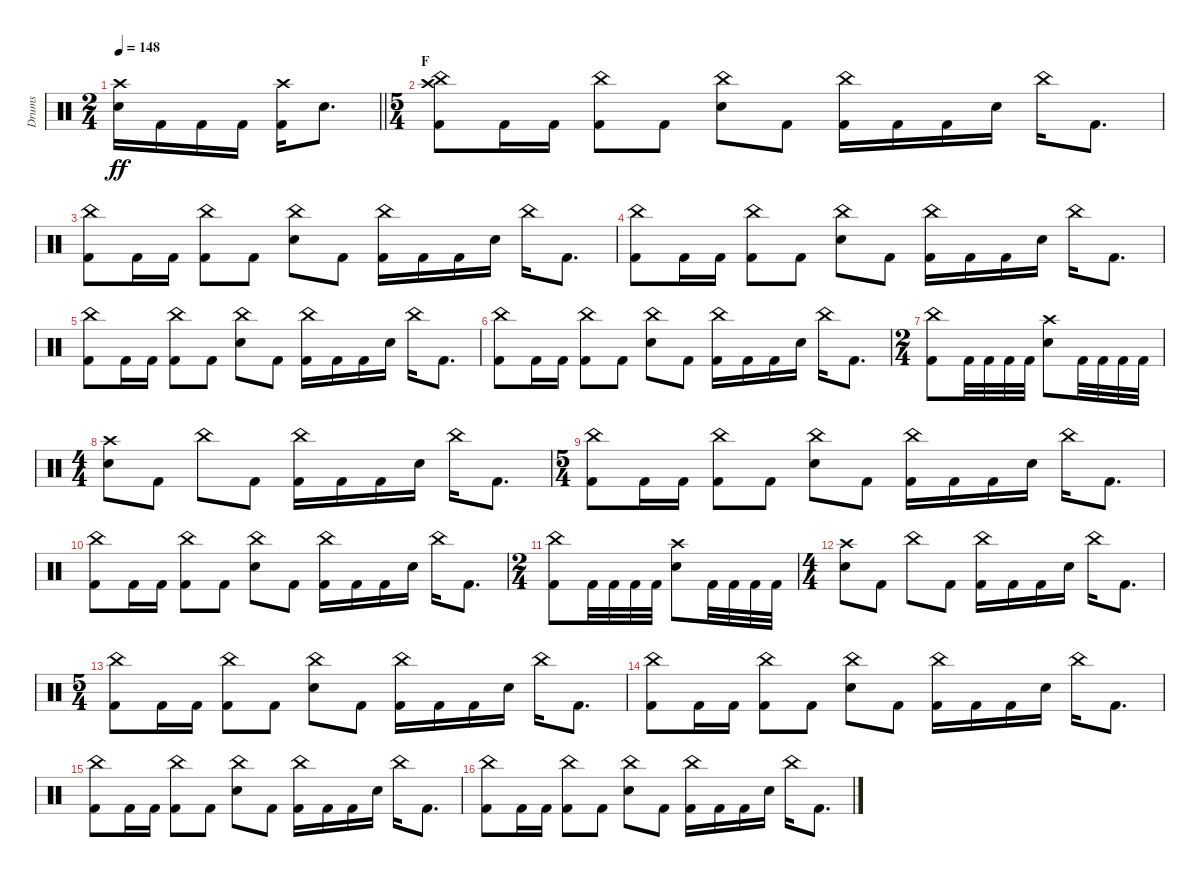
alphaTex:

\track ("Drums" "Drums") {instrument percussion}
\staff {score}
\articulation defaults
\ts (2 4)
\tempo 148
\clef neutral
\barLineRight lightlight
\ks c
("Crash high (hit)" "Electric Snare (hit)").16{dy ff} "Kick (hit) 2".16 "Kick (hit) 2".16 "Kick (hit) 2".16 ("Crash high (hit)" "Kick (hit) 2").16 "Electric Snare (hit)".8{d} |
\ts (5 4)
\section ("" "F")
("Crash high (hit)" "China (hit)" "Kick (hit) 2").8 "Kick (hit) 2".16 "Kick (hit) 2".16 ("China (hit)" "Kick (hit) 2").8 "Kick (hit) 2".8 ("China (hit)" "Electric Snare (hit)").8 "Kick (hit) 2".8 ("China (hit)" "Kick (hit) 2").16 "Kick (hit) 2".16 "Kick (hit) 2".16 "Electric Snare (hit)".16 "China (hit)".16 "Kick (hit) 2".8{d} |
("China (hit)" "Kick (hit) 2").8 "Kick (hit) 2".16 "Kick (hit) 2".16 ("China (hit)" "Kick (hit) 2").8 "Kick (hit) 2".8 ("China (hit)" "Electric Snare (hit)").8 "Kick (hit) 2".8 ("China (hit)" "Kick (hit) 2").16 "Kick (hit) 2".16 "Kick (hit) 2".16 "Electric Snare (hit)".16 "China (hit)".16 "Kick (hit) 2".8{d} |
("China (hit)" "Kick (hit) 2").8 "Kick (hit) 2".16 "Kick (hit) 2".16 ("China (hit)" "Kick (hit) 2").8 "Kick (hit) 2".8 ("China (hit)" "Electric Snare (hit)").8 "Kick (hit) 2".8 ("China (hit)" "Kick (hit) 2").16 "Kick (hit) 2".16 "Kick (hit) 2".16 "Electric Snare (hit)".16 "China (hit)".16 "Kick (hit) 2".8{d} |
("China (hit)" "Kick (hit) 2").8 "Kick (hit) 2".16 "Kick (hit) 2".16 ("China (hit)" "Kick (hit) 2").8 "Kick (hit) 2".8 ("China (hit)" "Electric Snare (hit)").8 "Kick (hit) 2".8 ("China (hit)" "Kick (hit) 2").16 "Kick (hit) 2".16 "Kick (hit) 2".16 "Electric Snare (hit)".16 "China (hit)".16 "Kick (hit) 2".8{d} |
("China (hit)" "Kick (hit) 2").8 "Kick (hit) 2".16 "Kick (hit) 2".16 ("China (hit)" "Kick (hit) 2").8 "Kick (hit) 2".8 ("China (hit)" "Electric Snare (hit)").8 "Kick (hit) 2".8 ("China (hit)" "Kick (hit) 2").16 "Kick (hit) 2".16 "Kick (hit) 2".16 "Electric Snare (hit)".16 "China (hit)".16 "Kick (hit) 2".8{d} |
\ts (2 4)
("China (hit)" "Kick (hit) 2").8 "Kick (hit) 2".32 "Kick (hit) 2".32 "Kick (hit) 2".32 "Kick (hit) 2".32 ("Crash high (hit)" "Electric Snare (hit)").8 "Kick (hit) 2".32 "Kick (hit) 2".32 "Kick (hit) 2".32 "Kick (hit) 2".32 |
\ts (4 4)
("Crash high (hit)" "Electric Snare (hit)").8 "Kick (hit) 2".8 "China (hit)".8 "Kick (hit) 2".8 ("China (hit)" "Kick (hit) 2").16 "Kick (hit) 2".16 "Kick (hit) 2".16 "Electric Snare (hit)".16 "China (hit)".16 "Kick (hit) 2".8{d} |
\ts (5 4)
("China (hit)" "Kick (hit) 2").8 "Kick (hit) 2".16 "Kick (hit) 2".16 ("China (hit)" "Kick (hit) 2").8 "Kick (hit) 2".8 ("China (hit)" "Electric Snare (hit)").8 "Kick (hit) 2".8 ("China (hit)" "Kick (hit) 2").16 "Kick (hit) 2".16 "Kick (hit) 2".16 "Electric Snare (hit)".16 "China (hit)".16 "Kick (hit) 2".8{d} |
("China (hit)" "Kick (hit) 2").8 "Kick (hit) 2".16 "Kick (hit) 2".16 ("China (hit)" "Kick (hit) 2").8 "Kick (hit) 2".8 ("China (hit)" "Electric Snare (hit)").8 "Kick (hit) 2".8 ("China (hit)" "Kick (hit) 2").16 "Kick (hit) 2".16 "Kick (hit) 2".16 "Electric Snare (hit)".16 "China (hit)".16 "Kick (hit) 2".8{d} |
\ts (2 4)
("China (hit)" "Kick (hit) 2").8 "Kick (hit) 2".32 "Kick (hit) 2".32 "Kick (hit) 2".32 "Kick (hit) 2".32 ("Crash high (hit)" "Electric Snare (hit)").8 "Kick (hit) 2".32 "Kick (hit) 2".32 "Kick (hit) 2".32 "Kick (hit) 2".32 |
\ts (4 4)
("Crash high (hit)" "Electric Snare (hit)").8 "Kick (hit) 2".8 "China (hit)".8 "Kick (hit) 2".8 ("China (hit)" "Kick (hit) 2").16 "Kick (hit) 2".16 "Kick (hit) 2".16 "Electric Snare (hit)".16 "China (hit)".16 "Kick (hit) 2".8{d} |
\ts (5 4)
("China (hit)" "Kick (hit) 2").8 "Kick (hit) 2".16 "Kick (hit) 2".16 ("China (hit)" "Kick (hit) 2").8 "Kick (hit) 2".8 ("China (hit)" "Electric Snare (hit)").8 "Kick (hit) 2".8 ("China (hit)" "Kick (hit) 2").16 "Kick (hit) 2".16 "Kick (hit) 2".16 "Electric Snare (hit)".16 "China (hit)".16 "Kick (hit) 2".8{d} |
("China (hit)" "Kick (hit) 2").8 "Kick (hit) 2".16 "Kick (hit) 2".16 ("China (hit)" "Kick (hit) 2").8 "Kick (hit) 2".8 ("China (hit)" "Electric Snare (hit)").8 "Kick (hit) 2".8 ("China (hit)" "Kick (hit) 2").16 "Kick (hit) 2".16 "Kick (hit) 2".16 "Electric Snare (hit)".16 "China (hit)".16 "Kick (hit) 2".8{d} |
("China (hit)" "Kick (hit) 2").8 "Kick (hit) 2".16 "Kick (hit) 2".16 ("China (hit)" "Kick (hit) 2").8 "Kick (hit) 2".8 ("China (hit)" "Electric Snare (hit)").8 "Kick (hit) 2".8 ("China (hit)" "Kick (hit) 2").16 "Kick (hit) 2".16 "Kick (hit) 2".16 "Electric Snare (hit)".16 "China (hit)".16 "Kick (hit) 2".8{d} |
("China (hit)" "Kick (hit) 2").8 "Kick (hit) 2".16 "Kick (hit) 2".16 ("China (hit)" "Kick (hit) 2").8 "Kick (hit) 2".8 ("China (hit)" "Electric Snare (hit)").8 "Kick (hit) 2".8 ("China (hit)" "Kick (hit) 2").16 "Kick (hit) 2".16 "Kick (hit) 2".16 "Electric Snare (hit)".16 "China (hit)".16 "Kick (hit) 2".8{d}
